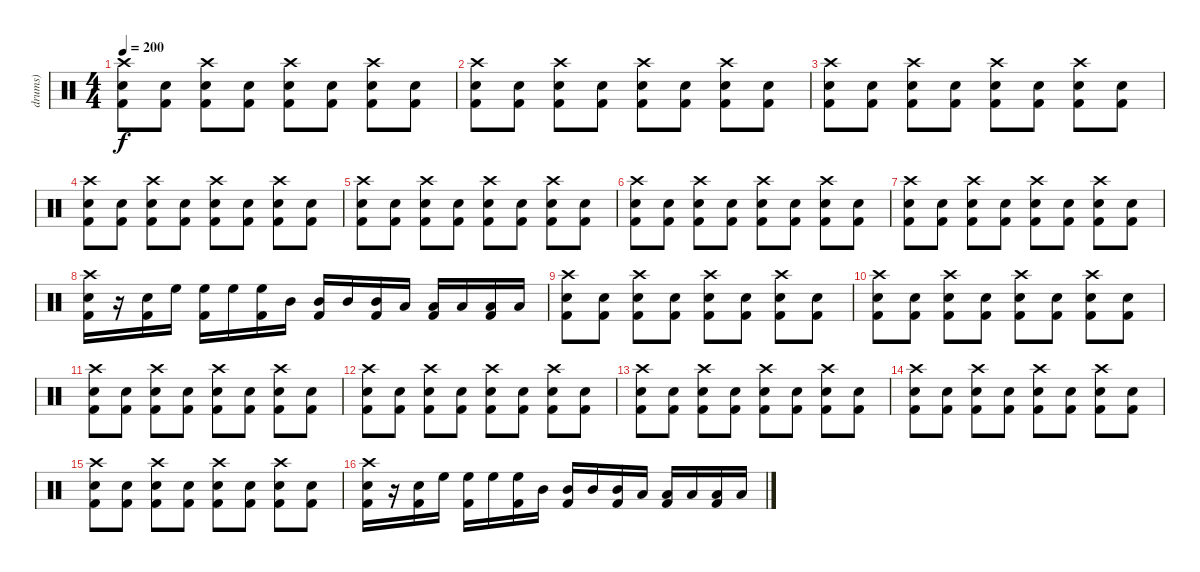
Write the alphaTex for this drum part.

\track ("drums)" "drums)") {instrument percussion}
\staff {score}
\articulation defaults
\ts (4 4)
\tempo 200
\clef neutral
\ks c
("Crash high (hit)" "Electric Snare (hit)" "Kick (hit) 2").8{dy f} ("Electric Snare (hit)" "Kick (hit) 2").8 ("Crash high (hit)" "Electric Snare (hit)" "Kick (hit) 2").8 ("Electric Snare (hit)" "Kick (hit) 2").8 ("Crash high (hit)" "Electric Snare (hit)" "Kick (hit) 2").8 ("Electric Snare (hit)" "Kick (hit) 2").8 ("Crash high (hit)" "Electric Snare (hit)" "Kick (hit) 2").8 ("Electric Snare (hit)" "Kick (hit) 2").8 |
("Crash high (hit)" "Electric Snare (hit)" "Kick (hit) 2").8 ("Electric Snare (hit)" "Kick (hit) 2").8 ("Crash high (hit)" "Electric Snare (hit)" "Kick (hit) 2").8 ("Electric Snare (hit)" "Kick (hit) 2").8 ("Crash high (hit)" "Electric Snare (hit)" "Kick (hit) 2").8 ("Electric Snare (hit)" "Kick (hit) 2").8 ("Crash high (hit)" "Electric Snare (hit)" "Kick (hit) 2").8 ("Electric Snare (hit)" "Kick (hit) 2").8 |
("Crash high (hit)" "Electric Snare (hit)" "Kick (hit) 2").8 ("Electric Snare (hit)" "Kick (hit) 2").8 ("Crash high (hit)" "Electric Snare (hit)" "Kick (hit) 2").8 ("Electric Snare (hit)" "Kick (hit) 2").8 ("Crash high (hit)" "Electric Snare (hit)" "Kick (hit) 2").8 ("Electric Snare (hit)" "Kick (hit) 2").8 ("Crash high (hit)" "Electric Snare (hit)" "Kick (hit) 2").8 ("Electric Snare (hit)" "Kick (hit) 2").8 |
("Crash high (hit)" "Electric Snare (hit)" "Kick (hit) 2").8 ("Electric Snare (hit)" "Kick (hit) 2").8 ("Crash high (hit)" "Electric Snare (hit)" "Kick (hit) 2").8 ("Electric Snare (hit)" "Kick (hit) 2").8 ("Crash high (hit)" "Electric Snare (hit)" "Kick (hit) 2").8 ("Electric Snare (hit)" "Kick (hit) 2").8 ("Crash high (hit)" "Electric Snare (hit)" "Kick (hit) 2").8 ("Electric Snare (hit)" "Kick (hit) 2").8 |
("Crash high (hit)" "Electric Snare (hit)" "Kick (hit) 2").8 ("Electric Snare (hit)" "Kick (hit) 2").8 ("Crash high (hit)" "Electric Snare (hit)" "Kick (hit) 2").8 ("Electric Snare (hit)" "Kick (hit) 2").8 ("Crash high (hit)" "Electric Snare (hit)" "Kick (hit) 2").8 ("Electric Snare (hit)" "Kick (hit) 2").8 ("Crash high (hit)" "Electric Snare (hit)" "Kick (hit) 2").8 ("Electric Snare (hit)" "Kick (hit) 2").8 |
("Crash high (hit)" "Electric Snare (hit)" "Kick (hit) 2").8 ("Electric Snare (hit)" "Kick (hit) 2").8 ("Crash high (hit)" "Electric Snare (hit)" "Kick (hit) 2").8 ("Electric Snare (hit)" "Kick (hit) 2").8 ("Crash high (hit)" "Electric Snare (hit)" "Kick (hit) 2").8 ("Electric Snare (hit)" "Kick (hit) 2").8 ("Crash high (hit)" "Electric Snare (hit)" "Kick (hit) 2").8 ("Electric Snare (hit)" "Kick (hit) 2").8 |
("Crash high (hit)" "Electric Snare (hit)" "Kick (hit) 2").8 ("Electric Snare (hit)" "Kick (hit) 2").8 ("Crash high (hit)" "Electric Snare (hit)" "Kick (hit) 2").8 ("Electric Snare (hit)" "Kick (hit) 2").8 ("Crash high (hit)" "Electric Snare (hit)" "Kick (hit) 2").8 ("Electric Snare (hit)" "Kick (hit) 2").8 ("Crash high (hit)" "Electric Snare (hit)" "Kick (hit) 2").8 ("Electric Snare (hit)" "Kick (hit) 2").8 |
("Crash high (hit)" "Electric Snare (hit)" "Kick (hit) 2").16 r.16 ("Electric Snare (hit)" "Kick (hit) 2").16 "High Floor Tom (hit)".16 ("High Floor Tom (hit)" "Kick (hit) 2").16 "High Floor Tom (hit)".16 ("High Floor Tom (hit)" "Kick (hit) 2").16 "Mid Tom (hit)".16 ("Mid Tom (hit)" "Kick (hit) 2").16 "Mid Tom (hit)".16 ("Mid Tom (hit)" "Kick (hit) 2").16 "Low Floor Tom (hit)".16 ("Low Floor Tom (hit)" "Kick (hit) 2").16 "Low Floor Tom (hit)".16 ("Low Floor Tom (hit)" "Kick (hit) 2").16 "Low Floor Tom (hit)".16 |
("Crash high (hit)" "Electric Snare (hit)" "Kick (hit) 2").8 ("Electric Snare (hit)" "Kick (hit) 2").8 ("Crash high (hit)" "Electric Snare (hit)" "Kick (hit) 2").8 ("Electric Snare (hit)" "Kick (hit) 2").8 ("Crash high (hit)" "Electric Snare (hit)" "Kick (hit) 2").8 ("Electric Snare (hit)" "Kick (hit) 2").8 ("Crash high (hit)" "Electric Snare (hit)" "Kick (hit) 2").8 ("Electric Snare (hit)" "Kick (hit) 2").8 |
("Crash high (hit)" "Electric Snare (hit)" "Kick (hit) 2").8 ("Electric Snare (hit)" "Kick (hit) 2").8 ("Crash high (hit)" "Electric Snare (hit)" "Kick (hit) 2").8 ("Electric Snare (hit)" "Kick (hit) 2").8 ("Crash high (hit)" "Electric Snare (hit)" "Kick (hit) 2").8 ("Electric Snare (hit)" "Kick (hit) 2").8 ("Crash high (hit)" "Electric Snare (hit)" "Kick (hit) 2").8 ("Electric Snare (hit)" "Kick (hit) 2").8 |
("Crash high (hit)" "Electric Snare (hit)" "Kick (hit) 2").8 ("Electric Snare (hit)" "Kick (hit) 2").8 ("Crash high (hit)" "Electric Snare (hit)" "Kick (hit) 2").8 ("Electric Snare (hit)" "Kick (hit) 2").8 ("Crash high (hit)" "Electric Snare (hit)" "Kick (hit) 2").8 ("Electric Snare (hit)" "Kick (hit) 2").8 ("Crash high (hit)" "Electric Snare (hit)" "Kick (hit) 2").8 ("Electric Snare (hit)" "Kick (hit) 2").8 |
("Crash high (hit)" "Electric Snare (hit)" "Kick (hit) 2").8 ("Electric Snare (hit)" "Kick (hit) 2").8 ("Crash high (hit)" "Electric Snare (hit)" "Kick (hit) 2").8 ("Electric Snare (hit)" "Kick (hit) 2").8 ("Crash high (hit)" "Electric Snare (hit)" "Kick (hit) 2").8 ("Electric Snare (hit)" "Kick (hit) 2").8 ("Crash high (hit)" "Electric Snare (hit)" "Kick (hit) 2").8 ("Electric Snare (hit)" "Kick (hit) 2").8 |
("Crash high (hit)" "Electric Snare (hit)" "Kick (hit) 2").8 ("Electric Snare (hit)" "Kick (hit) 2").8 ("Crash high (hit)" "Electric Snare (hit)" "Kick (hit) 2").8 ("Electric Snare (hit)" "Kick (hit) 2").8 ("Crash high (hit)" "Electric Snare (hit)" "Kick (hit) 2").8 ("Electric Snare (hit)" "Kick (hit) 2").8 ("Crash high (hit)" "Electric Snare (hit)" "Kick (hit) 2").8 ("Electric Snare (hit)" "Kick (hit) 2").8 |
("Crash high (hit)" "Electric Snare (hit)" "Kick (hit) 2").8 ("Electric Snare (hit)" "Kick (hit) 2").8 ("Crash high (hit)" "Electric Snare (hit)" "Kick (hit) 2").8 ("Electric Snare (hit)" "Kick (hit) 2").8 ("Crash high (hit)" "Electric Snare (hit)" "Kick (hit) 2").8 ("Electric Snare (hit)" "Kick (hit) 2").8 ("Crash high (hit)" "Electric Snare (hit)" "Kick (hit) 2").8 ("Electric Snare (hit)" "Kick (hit) 2").8 |
("Crash high (hit)" "Electric Snare (hit)" "Kick (hit) 2").8 ("Electric Snare (hit)" "Kick (hit) 2").8 ("Crash high (hit)" "Electric Snare (hit)" "Kick (hit) 2").8 ("Electric Snare (hit)" "Kick (hit) 2").8 ("Crash high (hit)" "Electric Snare (hit)" "Kick (hit) 2").8 ("Electric Snare (hit)" "Kick (hit) 2").8 ("Crash high (hit)" "Electric Snare (hit)" "Kick (hit) 2").8 ("Electric Snare (hit)" "Kick (hit) 2").8 |
("Crash high (hit)" "Electric Snare (hit)" "Kick (hit) 2").16 r.16 ("Electric Snare (hit)" "Kick (hit) 2").16 "High Floor Tom (hit)".16 ("High Floor Tom (hit)" "Kick (hit) 2").16 "High Floor Tom (hit)".16 ("High Floor Tom (hit)" "Kick (hit) 2").16 "Mid Tom (hit)".16 ("Mid Tom (hit)" "Kick (hit) 2").16 "Mid Tom (hit)".16 ("Mid Tom (hit)" "Kick (hit) 2").16 "Low Floor Tom (hit)".16 ("Low Floor Tom (hit)" "Kick (hit) 2").16 "Low Floor Tom (hit)".16 ("Low Floor Tom (hit)" "Kick (hit) 2").16 "Low Floor Tom (hit)".16
